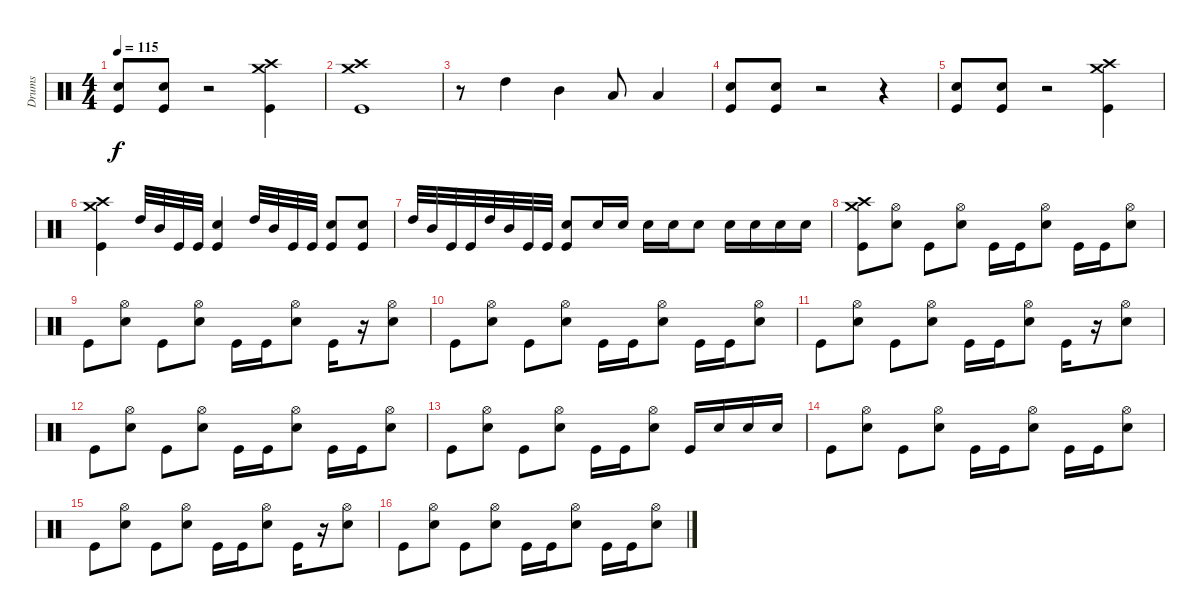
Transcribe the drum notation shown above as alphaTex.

\track ("Drums" "Drums") {instrument percussion}
\staff {score}
\articulation defaults
\ts (4 4)
\tempo 115
\clef neutral
\ks c
("Electric Snare (hit)" "Kick (hit)").8{dy f} ("Electric Snare (hit)" "Kick (hit)").8 r.2 ("Kick (hit)" "Crash medium (hit)" "Crash high (hit)").4 |
("Crash high (hit)" "Crash medium (hit)" "Kick (hit)").1 |
r.8 "High Tom (hit)".4 "Mid Tom (hit)".4 "Low Tom (hit)".8 "Low Tom (hit)".4 |
("Electric Snare (hit)" "Kick (hit)").8 ("Electric Snare (hit)" "Kick (hit)").8 r.2 r.4 |
("Electric Snare (hit)" "Kick (hit)").8 ("Electric Snare (hit)" "Kick (hit)").8 r.2 ("Kick (hit)" "Crash medium (hit)" "Crash high (hit)").4 |
("Kick (hit)" "Crash medium (hit)" "Crash high (hit)").4 "High Tom (hit)".32 "Mid Tom (hit)".32 "Kick (hit)".32 "Kick (hit)".32 ("Electric Snare (hit)" "Kick (hit)").4 "High Tom (hit)".32 "Mid Tom (hit)".32 "Kick (hit)".32 "Kick (hit)".32 ("Electric Snare (hit)" "Kick (hit)").8 ("Electric Snare (hit)" "Kick (hit)").8 |
"High Tom (hit)".32 "Mid Tom (hit)".32 "Kick (hit)".32 "Kick (hit)".32 "High Tom (hit)".32 "Mid Tom (hit)".32 "Kick (hit)".32 "Kick (hit)".32 ("Electric Snare (hit)" "Kick (hit)").8 "Electric Snare (hit)".16 "Electric Snare (hit)".16 "Electric Snare (hit)".16 "Electric Snare (hit)".16 "Electric Snare (hit)".8 "Electric Snare (hit)".16 "Electric Snare (hit)".16 "Electric Snare (hit)".16 "Electric Snare (hit)".16 |
("Kick (hit)" "Crash high (hit)" "Crash medium (hit)").8 ("Electric Snare (hit)" "Hi-Hat (open)").8 "Kick (hit)".8 ("Electric Snare (hit)" "Hi-Hat (open)").8 "Kick (hit)".16 "Kick (hit)".16 ("Electric Snare (hit)" "Hi-Hat (open)").8 "Kick (hit)".16 "Kick (hit)".16 ("Electric Snare (hit)" "Hi-Hat (open)").8 |
"Kick (hit)".8 ("Electric Snare (hit)" "Hi-Hat (open)").8 "Kick (hit)".8 ("Electric Snare (hit)" "Hi-Hat (open)").8 "Kick (hit)".16 "Kick (hit)".16 ("Electric Snare (hit)" "Hi-Hat (open)").8 "Kick (hit)".16 r.16 ("Electric Snare (hit)" "Hi-Hat (open)").8 |
"Kick (hit)".8 ("Electric Snare (hit)" "Hi-Hat (open)").8 "Kick (hit)".8 ("Electric Snare (hit)" "Hi-Hat (open)").8 "Kick (hit)".16 "Kick (hit)".16 ("Electric Snare (hit)" "Hi-Hat (open)").8 "Kick (hit)".16 "Kick (hit)".16 ("Electric Snare (hit)" "Hi-Hat (open)").8 |
"Kick (hit)".8 ("Electric Snare (hit)" "Hi-Hat (open)").8 "Kick (hit)".8 ("Electric Snare (hit)" "Hi-Hat (open)").8 "Kick (hit)".16 "Kick (hit)".16 ("Electric Snare (hit)" "Hi-Hat (open)").8 "Kick (hit)".16 r.16 ("Electric Snare (hit)" "Hi-Hat (open)").8 |
"Kick (hit)".8 ("Electric Snare (hit)" "Hi-Hat (open)").8 "Kick (hit)".8 ("Electric Snare (hit)" "Hi-Hat (open)").8 "Kick (hit)".16 "Kick (hit)".16 ("Electric Snare (hit)" "Hi-Hat (open)").8 "Kick (hit)".16 "Kick (hit)".16 ("Electric Snare (hit)" "Hi-Hat (open)").8 |
"Kick (hit)".8 ("Electric Snare (hit)" "Hi-Hat (open)").8 "Kick (hit)".8 ("Electric Snare (hit)" "Hi-Hat (open)").8 "Kick (hit)".16 "Kick (hit)".16 ("Electric Snare (hit)" "Hi-Hat (open)").8 "Kick (hit)".16 "Electric Snare (hit)".16 "Electric Snare (hit)".16 "Electric Snare (hit)".16 |
"Kick (hit)".8 ("Electric Snare (hit)" "Hi-Hat (open)").8 "Kick (hit)".8 ("Electric Snare (hit)" "Hi-Hat (open)").8 "Kick (hit)".16 "Kick (hit)".16 ("Electric Snare (hit)" "Hi-Hat (open)").8 "Kick (hit)".16 "Kick (hit)".16 ("Electric Snare (hit)" "Hi-Hat (open)").8 |
"Kick (hit)".8 ("Electric Snare (hit)" "Hi-Hat (open)").8 "Kick (hit)".8 ("Electric Snare (hit)" "Hi-Hat (open)").8 "Kick (hit)".16 "Kick (hit)".16 ("Electric Snare (hit)" "Hi-Hat (open)").8 "Kick (hit)".16 r.16 ("Electric Snare (hit)" "Hi-Hat (open)").8 |
"Kick (hit)".8 ("Electric Snare (hit)" "Hi-Hat (open)").8 "Kick (hit)".8 ("Electric Snare (hit)" "Hi-Hat (open)").8 "Kick (hit)".16 "Kick (hit)".16 ("Electric Snare (hit)" "Hi-Hat (open)").8 "Kick (hit)".16 "Kick (hit)".16 ("Electric Snare (hit)" "Hi-Hat (open)").8
